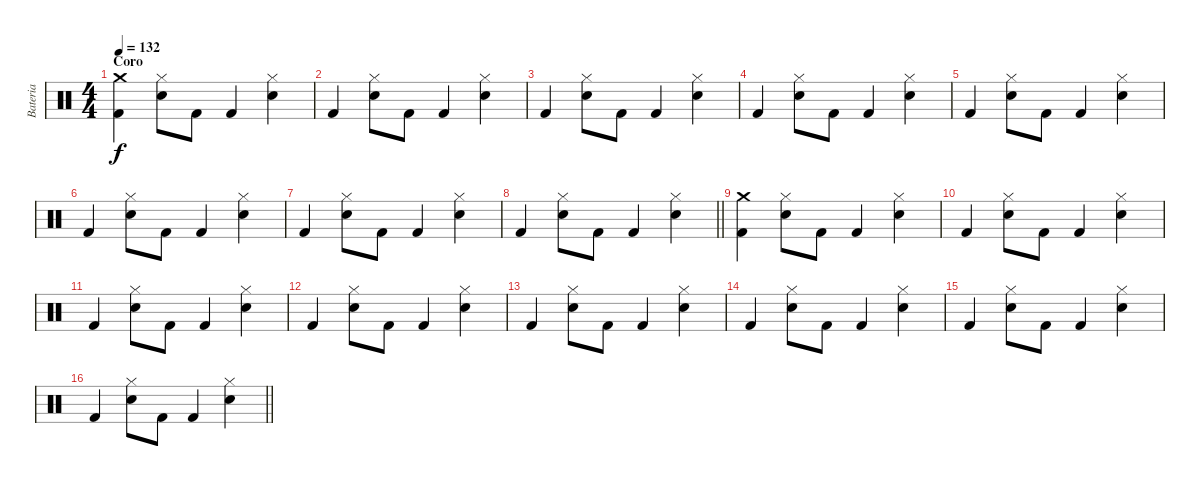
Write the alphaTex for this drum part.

\track ("Bateria" "Bateria") {instrument percussion}
\staff {score}
\articulation defaults
\ts (4 4)
\section ("" "Coro")
\tempo 132
\clef neutral
\ks c
("Kick (hit) 2" "Crash medium (hit)").4{dy f} ("Electric Snare (hit)" "Hi-Hat (closed)").8 "Kick (hit) 2".8 "Kick (hit) 2".4 ("Electric Snare (hit)" "Hi-Hat (closed)").4 |
"Kick (hit) 2".4 ("Electric Snare (hit)" "Hi-Hat (closed)").8 "Kick (hit) 2".8 "Kick (hit) 2".4 ("Electric Snare (hit)" "Hi-Hat (closed)").4 |
"Kick (hit) 2".4 ("Electric Snare (hit)" "Hi-Hat (closed)").8 "Kick (hit) 2".8 "Kick (hit) 2".4 ("Electric Snare (hit)" "Hi-Hat (closed)").4 |
"Kick (hit) 2".4 ("Electric Snare (hit)" "Hi-Hat (closed)").8 "Kick (hit) 2".8 "Kick (hit) 2".4 ("Electric Snare (hit)" "Hi-Hat (closed)").4 |
"Kick (hit) 2".4 ("Electric Snare (hit)" "Hi-Hat (closed)").8 "Kick (hit) 2".8 "Kick (hit) 2".4 ("Electric Snare (hit)" "Hi-Hat (closed)").4 |
"Kick (hit) 2".4 ("Electric Snare (hit)" "Hi-Hat (closed)").8 "Kick (hit) 2".8 "Kick (hit) 2".4 ("Electric Snare (hit)" "Hi-Hat (closed)").4 |
"Kick (hit) 2".4 ("Electric Snare (hit)" "Hi-Hat (closed)").8 "Kick (hit) 2".8 "Kick (hit) 2".4 ("Electric Snare (hit)" "Hi-Hat (closed)").4 |
\barLineRight lightlight "Kick (hit) 2".4
("Electric Snare (hit)" "Hi-Hat (closed)").8 "Kick (hit) 2".8 "Kick (hit) 2".4 ("Electric Snare (hit)" "Hi-Hat (closed)").4 |
\section ("" "")
("Kick (hit) 2" "Crash medium (hit)").4 ("Electric Snare (hit)" "Hi-Hat (closed)").8 "Kick (hit) 2".8 "Kick (hit) 2".4 ("Electric Snare (hit)" "Hi-Hat (closed)").4 |
"Kick (hit) 2".4 ("Electric Snare (hit)" "Hi-Hat (closed)").8 "Kick (hit) 2".8 "Kick (hit) 2".4 ("Electric Snare (hit)" "Hi-Hat (closed)").4 |
"Kick (hit) 2".4 ("Electric Snare (hit)" "Hi-Hat (closed)").8 "Kick (hit) 2".8 "Kick (hit) 2".4 ("Electric Snare (hit)" "Hi-Hat (closed)").4 |
"Kick (hit) 2".4 ("Electric Snare (hit)" "Hi-Hat (closed)").8 "Kick (hit) 2".8 "Kick (hit) 2".4 ("Electric Snare (hit)" "Hi-Hat (closed)").4 |
"Kick (hit) 2".4 ("Electric Snare (hit)" "Hi-Hat (closed)").8 "Kick (hit) 2".8 "Kick (hit) 2".4 ("Electric Snare (hit)" "Hi-Hat (closed)").4 |
"Kick (hit) 2".4 ("Electric Snare (hit)" "Hi-Hat (closed)").8 "Kick (hit) 2".8 "Kick (hit) 2".4 ("Electric Snare (hit)" "Hi-Hat (closed)").4 |
"Kick (hit) 2".4 ("Electric Snare (hit)" "Hi-Hat (closed)").8 "Kick (hit) 2".8 "Kick (hit) 2".4 ("Electric Snare (hit)" "Hi-Hat (closed)").4 |
\barLineRight lightlight "Kick (hit) 2".4
("Electric Snare (hit)" "Hi-Hat (closed)").8 "Kick (hit) 2".8 "Kick (hit) 2".4 ("Electric Snare (hit)" "Hi-Hat (closed)").4
